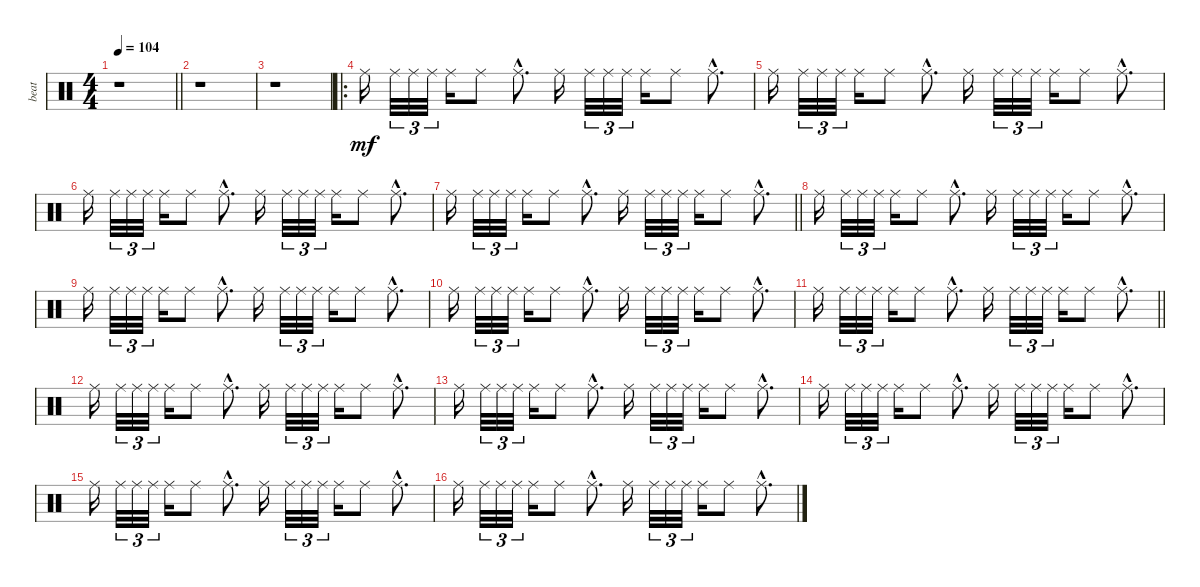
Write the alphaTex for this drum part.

\track ("beat" "beat") {instrument percussion}
\staff {score}
\articulation defaults
\ts (4 4)
\tempo 104
\clef neutral
\barLineRight lightlight
\ks c
r.1{dy mf} |
r.1 |
r.1 |
\ro "Ride (middle)".16 "Ride (middle)".32{tu (3 2)} "Ride (middle)".32{tu (3 2)} "Ride (middle)".32{tu (3 2)} "Ride (middle)".16 "Ride (middle)".8 "Ride (middle)"{hac}.8{d} "Ride (middle)".16 "Ride (middle)".32{tu (3 2)} "Ride (middle)".32{tu (3 2)} "Ride (middle)".32{tu (3 2)} "Ride (middle)".16 "Ride (middle)".8 "Ride (middle)"{hac}.8{d}
|
"Ride (middle)".16 "Ride (middle)".32{tu (3 2)} "Ride (middle)".32{tu (3 2)} "Ride (middle)".32{tu (3 2)} "Ride (middle)".16 "Ride (middle)".8 "Ride (middle)"{hac}.8{d} "Ride (middle)".16 "Ride (middle)".32{tu (3 2)} "Ride (middle)".32{tu (3 2)} "Ride (middle)".32{tu (3 2)} "Ride (middle)".16 "Ride (middle)".8 "Ride (middle)"{hac}.8{d} |
"Ride (middle)".16 "Ride (middle)".32{tu (3 2)} "Ride (middle)".32{tu (3 2)} "Ride (middle)".32{tu (3 2)} "Ride (middle)".16 "Ride (middle)".8 "Ride (middle)"{hac}.8{d} "Ride (middle)".16 "Ride (middle)".32{tu (3 2)} "Ride (middle)".32{tu (3 2)} "Ride (middle)".32{tu (3 2)} "Ride (middle)".16 "Ride (middle)".8 "Ride (middle)"{hac}.8{d} |
\barLineRight lightlight "Ride (middle)".16 "Ride (middle)".32{tu (3 2)} "Ride (middle)".32{tu (3 2)} "Ride (middle)".32{tu (3 2)} "Ride (middle)".16 "Ride (middle)".8 "Ride (middle)"{hac}.8{d} "Ride (middle)".16 "Ride (middle)".32{tu (3 2)} "Ride (middle)".32{tu (3 2)} "Ride (middle)".32{tu (3 2)} "Ride (middle)".16 "Ride (middle)".8 "Ride (middle)"{hac}.8{d}
|
"Ride (middle)".16 "Ride (middle)".32{tu (3 2)} "Ride (middle)".32{tu (3 2)} "Ride (middle)".32{tu (3 2)} "Ride (middle)".16 "Ride (middle)".8 "Ride (middle)"{hac}.8{d} "Ride (middle)".16 "Ride (middle)".32{tu (3 2)} "Ride (middle)".32{tu (3 2)} "Ride (middle)".32{tu (3 2)} "Ride (middle)".16 "Ride (middle)".8 "Ride (middle)"{hac}.8{d} |
"Ride (middle)".16 "Ride (middle)".32{tu (3 2)} "Ride (middle)".32{tu (3 2)} "Ride (middle)".32{tu (3 2)} "Ride (middle)".16 "Ride (middle)".8 "Ride (middle)"{hac}.8{d} "Ride (middle)".16 "Ride (middle)".32{tu (3 2)} "Ride (middle)".32{tu (3 2)} "Ride (middle)".32{tu (3 2)} "Ride (middle)".16 "Ride (middle)".8 "Ride (middle)"{hac}.8{d} |
"Ride (middle)".16 "Ride (middle)".32{tu (3 2)} "Ride (middle)".32{tu (3 2)} "Ride (middle)".32{tu (3 2)} "Ride (middle)".16 "Ride (middle)".8 "Ride (middle)"{hac}.8{d} "Ride (middle)".16 "Ride (middle)".32{tu (3 2)} "Ride (middle)".32{tu (3 2)} "Ride (middle)".32{tu (3 2)} "Ride (middle)".16 "Ride (middle)".8 "Ride (middle)"{hac}.8{d} |
\barLineRight lightlight "Ride (middle)".16 "Ride (middle)".32{tu (3 2)} "Ride (middle)".32{tu (3 2)} "Ride (middle)".32{tu (3 2)} "Ride (middle)".16 "Ride (middle)".8 "Ride (middle)"{hac}.8{d} "Ride (middle)".16 "Ride (middle)".32{tu (3 2)} "Ride (middle)".32{tu (3 2)} "Ride (middle)".32{tu (3 2)} "Ride (middle)".16 "Ride (middle)".8 "Ride (middle)"{hac}.8{d}
|
"Ride (middle)".16 "Ride (middle)".32{tu (3 2)} "Ride (middle)".32{tu (3 2)} "Ride (middle)".32{tu (3 2)} "Ride (middle)".16 "Ride (middle)".8 "Ride (middle)"{hac}.8{d} "Ride (middle)".16 "Ride (middle)".32{tu (3 2)} "Ride (middle)".32{tu (3 2)} "Ride (middle)".32{tu (3 2)} "Ride (middle)".16 "Ride (middle)".8 "Ride (middle)"{hac}.8{d} |
"Ride (middle)".16 "Ride (middle)".32{tu (3 2)} "Ride (middle)".32{tu (3 2)} "Ride (middle)".32{tu (3 2)} "Ride (middle)".16 "Ride (middle)".8 "Ride (middle)"{hac}.8{d} "Ride (middle)".16 "Ride (middle)".32{tu (3 2)} "Ride (middle)".32{tu (3 2)} "Ride (middle)".32{tu (3 2)} "Ride (middle)".16 "Ride (middle)".8 "Ride (middle)"{hac}.8{d} |
"Ride (middle)".16 "Ride (middle)".32{tu (3 2)} "Ride (middle)".32{tu (3 2)} "Ride (middle)".32{tu (3 2)} "Ride (middle)".16 "Ride (middle)".8 "Ride (middle)"{hac}.8{d} "Ride (middle)".16 "Ride (middle)".32{tu (3 2)} "Ride (middle)".32{tu (3 2)} "Ride (middle)".32{tu (3 2)} "Ride (middle)".16 "Ride (middle)".8 "Ride (middle)"{hac}.8{d} |
"Ride (middle)".16 "Ride (middle)".32{tu (3 2)} "Ride (middle)".32{tu (3 2)} "Ride (middle)".32{tu (3 2)} "Ride (middle)".16 "Ride (middle)".8 "Ride (middle)"{hac}.8{d} "Ride (middle)".16 "Ride (middle)".32{tu (3 2)} "Ride (middle)".32{tu (3 2)} "Ride (middle)".32{tu (3 2)} "Ride (middle)".16 "Ride (middle)".8 "Ride (middle)"{hac}.8{d} |
"Ride (middle)".16 "Ride (middle)".32{tu (3 2)} "Ride (middle)".32{tu (3 2)} "Ride (middle)".32{tu (3 2)} "Ride (middle)".16 "Ride (middle)".8 "Ride (middle)"{hac}.8{d} "Ride (middle)".16 "Ride (middle)".32{tu (3 2)} "Ride (middle)".32{tu (3 2)} "Ride (middle)".32{tu (3 2)} "Ride (middle)".16 "Ride (middle)".8 "Ride (middle)"{hac}.8{d}
